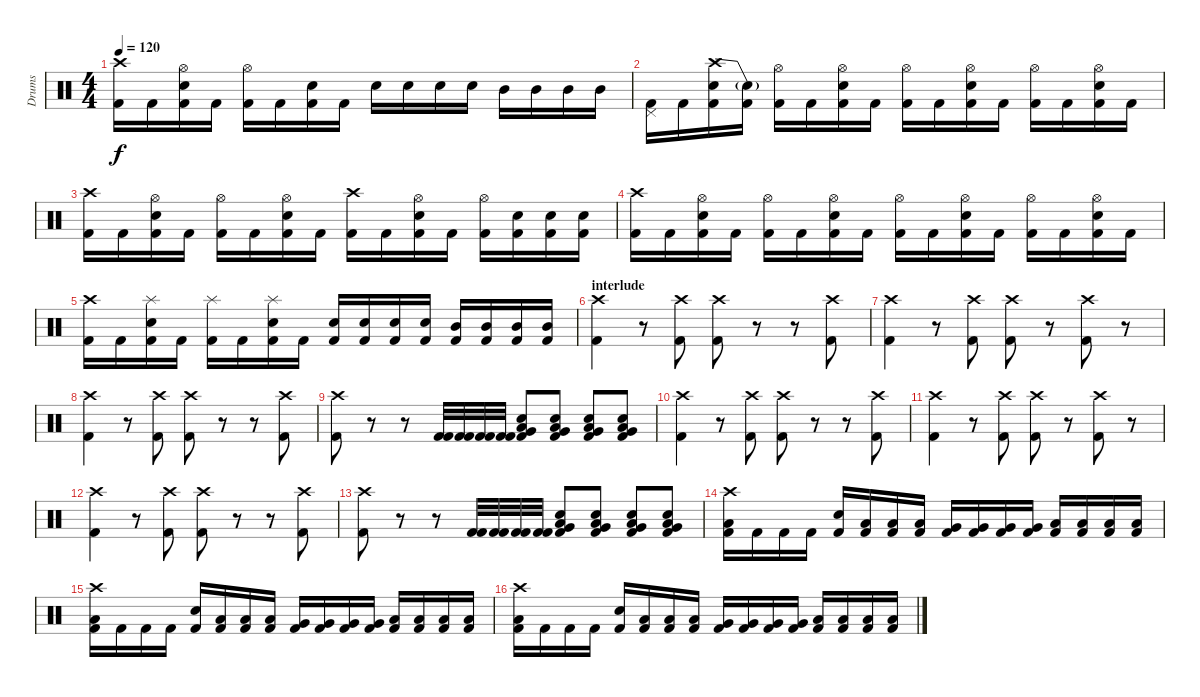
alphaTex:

\track ("Drums" "Drums") {instrument percussion}
\staff {score}
\articulation defaults
\ts (4 4)
\tempo 120
\clef neutral
\ks c
("Crash high (hit)" "Kick (hit) 2").16{dy f} "Kick (hit) 2".16 ("Hi-Hat (open)" "Kick (hit) 2" "Electric Snare (hit)").16 "Kick (hit) 2".16 ("Hi-Hat (open)" "Kick (hit) 2").16 "Kick (hit) 2".16 ("Kick (hit) 2" "Electric Snare (hit)").16 "Kick (hit) 2".16 "Electric Snare (hit)".16 "Electric Snare (hit)".16 "Electric Snare (hit)".16 "Electric Snare (hit)".16 "Mid Tom (hit)".16 "Mid Tom (hit)".16 "Mid Tom (hit)".16 "Mid Tom (hit)".16 |
("Pedal Hi-Hat (hit)" "Kick (hit) 2").16 "Kick (hit) 2".16 ("Crash high (hit)"{be (bend 0 0 60 12)} "Kick (hit) 2" "Electric Snare (hit)").16 ("Snare (hit)"{t} "Kick (hit) 2").16 ("Hi-Hat (open)" "Kick (hit) 2").16 "Kick (hit) 2".16 ("Hi-Hat (open)" "Kick (hit) 2" "Electric Snare (hit)").16 "Kick (hit) 2".16 ("Hi-Hat (open)" "Kick (hit) 2").16 "Kick (hit) 2".16 ("Hi-Hat (open)" "Kick (hit) 2" "Electric Snare (hit)").16 "Kick (hit) 2".16 ("Hi-Hat (open)" "Kick (hit) 2").16 "Kick (hit) 2".16 ("Hi-Hat (open)" "Kick (hit) 2" "Electric Snare (hit)").16 "Kick (hit) 2".16 |
("Crash high (hit)" "Kick (hit) 2").16 "Kick (hit) 2".16 ("Hi-Hat (open)" "Kick (hit) 2" "Electric Snare (hit)").16 "Kick (hit) 2".16 ("Hi-Hat (open)" "Kick (hit) 2").16 "Kick (hit) 2".16 ("Hi-Hat (open)" "Kick (hit) 2" "Electric Snare (hit)").16 "Kick (hit) 2".16 ("Crash high (hit)" "Kick (hit) 2").16 "Kick (hit) 2".16 ("Hi-Hat (open)" "Kick (hit) 2" "Electric Snare (hit)").16 "Kick (hit) 2".16 ("Hi-Hat (open)" "Kick (hit) 2").16 ("Kick (hit) 2" "Electric Snare (hit)").16 ("Kick (hit) 2" "Electric Snare (hit)").16 ("Kick (hit) 2" "Electric Snare (hit)").16 |
("Crash high (hit)" "Kick (hit) 2").16 "Kick (hit) 2".16 ("Hi-Hat (open)" "Kick (hit) 2" "Electric Snare (hit)").16 "Kick (hit) 2".16 ("Hi-Hat (open)" "Kick (hit) 2").16 "Kick (hit) 2".16 ("Hi-Hat (open)" "Kick (hit) 2" "Electric Snare (hit)").16 "Kick (hit) 2".16 ("Hi-Hat (open)" "Kick (hit) 2").16 "Kick (hit) 2".16 ("Hi-Hat (open)" "Kick (hit) 2" "Electric Snare (hit)").16 "Kick (hit) 2".16 ("Hi-Hat (open)" "Kick (hit) 2").16 "Kick (hit) 2".16 ("Hi-Hat (open)" "Kick (hit) 2" "Electric Snare (hit)").16 "Kick (hit) 2".16 |
("Crash high (hit)" "Kick (hit) 2").16 "Kick (hit) 2".16 ("Splash (hit)" "Kick (hit) 2" "Electric Snare (hit)").16 "Kick (hit) 2".16 ("Splash (hit)" "Kick (hit) 2").16 "Kick (hit) 2".16 ("Splash (hit)" "Kick (hit) 2" "Electric Snare (hit)").16 "Kick (hit) 2".16 ("Kick (hit) 2" "Electric Snare (hit)").16 ("Kick (hit) 2" "Electric Snare (hit)").16 ("Kick (hit) 2" "Electric Snare (hit)").16 ("Kick (hit) 2" "Electric Snare (hit)").16 ("Kick (hit) 2" "Mid Tom (hit)").16 ("Kick (hit) 2" "Mid Tom (hit)").16 ("Kick (hit) 2" "Mid Tom (hit)").16 ("Kick (hit) 2" "Mid Tom (hit)").16 |
\section ("" "interlude")
("Crash high (hit)" "Kick (hit) 2").4 r.8 ("Crash high (hit)" "Kick (hit) 2").8 ("Crash high (hit)" "Kick (hit) 2").8 r.8 r.8 ("Crash high (hit)" "Kick (hit) 2").8 |
("Crash high (hit)" "Kick (hit) 2").4 r.8 ("Crash high (hit)" "Kick (hit) 2").8 ("Crash high (hit)" "Kick (hit) 2").8 r.8 ("Crash high (hit)" "Kick (hit) 2").8 r.8 |
("Crash high (hit)" "Kick (hit) 2").4 r.8 ("Crash high (hit)" "Kick (hit) 2").8 ("Crash high (hit)" "Kick (hit) 2").8 r.8 r.8 ("Crash high (hit)" "Kick (hit) 2").8 |
("Crash high (hit)" "Kick (hit) 2").8 r.8 r.8 ("Kick (hit) 2" "Kick (hit) 2").32 ("Kick (hit) 2" "Kick (hit) 2").32 ("Kick (hit) 2" "Kick (hit) 2").32 ("Kick (hit) 2" "Kick (hit) 2").32 ("Electric Snare (hit)" "Kick (hit) 2" "Very Low Tom (hit)" "Low Tom (hit)").8 ("Electric Snare (hit)" "Kick (hit) 2" "Very Low Tom (hit)" "Low Tom (hit)").8 ("Electric Snare (hit)" "Kick (hit) 2" "Very Low Tom (hit)" "Low Tom (hit)").8 ("Electric Snare (hit)" "Kick (hit) 2" "Very Low Tom (hit)" "Low Tom (hit)").8 |
("Crash high (hit)" "Kick (hit) 2").4 r.8 ("Crash high (hit)" "Kick (hit) 2").8 ("Crash high (hit)" "Kick (hit) 2").8 r.8 r.8 ("Crash high (hit)" "Kick (hit) 2").8 |
("Crash high (hit)" "Kick (hit) 2").4 r.8 ("Crash high (hit)" "Kick (hit) 2").8 ("Crash high (hit)" "Kick (hit) 2").8 r.8 ("Crash high (hit)" "Kick (hit) 2").8 r.8 |
("Crash high (hit)" "Kick (hit) 2").4 r.8 ("Crash high (hit)" "Kick (hit) 2").8 ("Crash high (hit)" "Kick (hit) 2").8 r.8 r.8 ("Crash high (hit)" "Kick (hit) 2").8 |
("Crash high (hit)" "Kick (hit) 2").8 r.8 r.8 ("Kick (hit) 2" "Kick (hit) 2").32 ("Kick (hit) 2" "Kick (hit) 2").32 ("Kick (hit) 2" "Kick (hit) 2").32 ("Kick (hit) 2" "Kick (hit) 2").32 ("Electric Snare (hit)" "Kick (hit) 2" "Very Low Tom (hit)" "Low Tom (hit)").8 ("Electric Snare (hit)" "Kick (hit) 2" "Very Low Tom (hit)" "Low Tom (hit)").8 ("Electric Snare (hit)" "Kick (hit) 2" "Very Low Tom (hit)" "Low Tom (hit)").8 ("Electric Snare (hit)" "Kick (hit) 2" "Very Low Tom (hit)" "Low Tom (hit)").8 |
("Crash high (hit)" "Low Tom (hit)" "Kick (hit) 2").16 "Kick (hit) 2".16 "Kick (hit) 2".16 "Kick (hit) 2".16 ("Electric Snare (hit)" "Kick (hit) 2").16 ("Low Tom (hit)" "Kick (hit) 2").16 ("Low Tom (hit)" "Kick (hit) 2").16 ("Low Tom (hit)" "Kick (hit) 2").16 ("Very Low Tom (hit)" "Kick (hit) 2").16 ("Very Low Tom (hit)" "Kick (hit) 2").16 ("Very Low Tom (hit)" "Kick (hit) 2").16 ("Very Low Tom (hit)" "Kick (hit) 2").16 ("Low Floor Tom (hit)" "Kick (hit) 2").16 ("Low Floor Tom (hit)" "Kick (hit) 2").16 ("Low Floor Tom (hit)" "Kick (hit) 2").16 ("Low Floor Tom (hit)" "Kick (hit) 2").16 |
("Crash high (hit)" "Low Tom (hit)" "Kick (hit) 2").16 "Kick (hit) 2".16 "Kick (hit) 2".16 "Kick (hit) 2".16 ("Electric Snare (hit)" "Kick (hit) 2").16 ("Low Tom (hit)" "Kick (hit) 2").16 ("Low Tom (hit)" "Kick (hit) 2").16 ("Low Tom (hit)" "Kick (hit) 2").16 ("Very Low Tom (hit)" "Kick (hit) 2").16 ("Very Low Tom (hit)" "Kick (hit) 2").16 ("Very Low Tom (hit)" "Kick (hit) 2").16 ("Very Low Tom (hit)" "Kick (hit) 2").16 ("Low Floor Tom (hit)" "Kick (hit) 2").16 ("Low Floor Tom (hit)" "Kick (hit) 2").16 ("Low Floor Tom (hit)" "Kick (hit) 2").16 ("Low Floor Tom (hit)" "Kick (hit) 2").16 |
("Crash high (hit)" "Low Tom (hit)" "Kick (hit) 2").16 "Kick (hit) 2".16 "Kick (hit) 2".16 "Kick (hit) 2".16 ("Electric Snare (hit)" "Kick (hit) 2").16 ("Low Tom (hit)" "Kick (hit) 2").16 ("Low Tom (hit)" "Kick (hit) 2").16 ("Low Tom (hit)" "Kick (hit) 2").16 ("Very Low Tom (hit)" "Kick (hit) 2").16 ("Very Low Tom (hit)" "Kick (hit) 2").16 ("Very Low Tom (hit)" "Kick (hit) 2").16 ("Very Low Tom (hit)" "Kick (hit) 2").16 ("Low Floor Tom (hit)" "Kick (hit) 2").16 ("Low Floor Tom (hit)" "Kick (hit) 2").16 ("Low Floor Tom (hit)" "Kick (hit) 2").16 ("Low Floor Tom (hit)" "Kick (hit) 2").16
